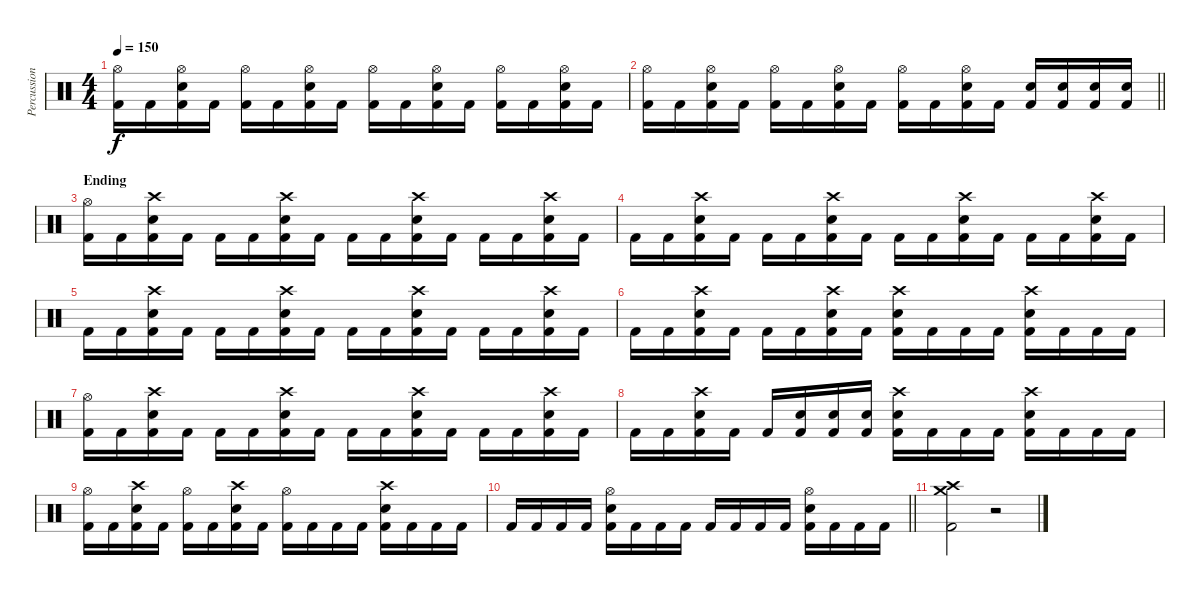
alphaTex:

\track ("Percussion" "Percussion") {instrument percussion}
\staff {score}
\articulation defaults
\ts (4 4)
\tempo 150
\clef neutral
\ks c
("Hi-Hat (open)" "Kick (hit) 2").16{dy f} "Kick (hit) 2".16 ("Hi-Hat (open)" "Electric Snare (hit)" "Kick (hit) 2").16 "Kick (hit) 2".16 ("Hi-Hat (open)" "Kick (hit) 2").16 "Kick (hit) 2".16 ("Hi-Hat (open)" "Electric Snare (hit)" "Kick (hit) 2").16 "Kick (hit) 2".16 ("Hi-Hat (open)" "Kick (hit) 2").16 "Kick (hit) 2".16 ("Hi-Hat (open)" "Electric Snare (hit)" "Kick (hit) 2").16 "Kick (hit) 2".16 ("Hi-Hat (open)" "Kick (hit) 2").16 "Kick (hit) 2".16 ("Hi-Hat (open)" "Electric Snare (hit)" "Kick (hit) 2").16 "Kick (hit) 2".16 |
\barLineRight lightlight
("Hi-Hat (open)" "Kick (hit) 2").16 "Kick (hit) 2".16 ("Hi-Hat (open)" "Electric Snare (hit)" "Kick (hit) 2").16 "Kick (hit) 2".16 ("Hi-Hat (open)" "Kick (hit) 2").16 "Kick (hit) 2".16 ("Hi-Hat (open)" "Electric Snare (hit)" "Kick (hit) 2").16 "Kick (hit) 2".16 ("Hi-Hat (open)" "Kick (hit) 2").16 "Kick (hit) 2".16 ("Hi-Hat (open)" "Electric Snare (hit)" "Kick (hit) 2").16 "Kick (hit) 2".16 ("Electric Snare (hit)" "Kick (hit) 2").16 ("Electric Snare (hit)" "Kick (hit) 2").16 ("Electric Snare (hit)" "Kick (hit) 2").16 ("Electric Snare (hit)" "Kick (hit) 2").16 |
\section ("" "Ending")
("Hi-Hat (open)" "Kick (hit) 2").16 "Kick (hit) 2".16 ("Crash high (hit)" "Electric Snare (hit)" "Kick (hit) 2").16 "Kick (hit) 2".16 "Kick (hit) 2".16 "Kick (hit) 2".16 ("Crash high (hit)" "Electric Snare (hit)" "Kick (hit) 2").16 "Kick (hit) 2".16 "Kick (hit) 2".16 "Kick (hit) 2".16 ("Crash high (hit)" "Electric Snare (hit)" "Kick (hit) 2").16 "Kick (hit) 2".16 "Kick (hit) 2".16 "Kick (hit) 2".16 ("Crash high (hit)" "Electric Snare (hit)" "Kick (hit) 2").16 "Kick (hit) 2".16 |
"Kick (hit) 2".16 "Kick (hit) 2".16 ("Crash high (hit)" "Electric Snare (hit)" "Kick (hit) 2").16 "Kick (hit) 2".16 "Kick (hit) 2".16 "Kick (hit) 2".16 ("Crash high (hit)" "Electric Snare (hit)" "Kick (hit) 2").16 "Kick (hit) 2".16 "Kick (hit) 2".16 "Kick (hit) 2".16 ("Crash high (hit)" "Electric Snare (hit)" "Kick (hit) 2").16 "Kick (hit) 2".16 "Kick (hit) 2".16 "Kick (hit) 2".16 ("Crash high (hit)" "Electric Snare (hit)" "Kick (hit) 2").16 "Kick (hit) 2".16 |
"Kick (hit) 2".16 "Kick (hit) 2".16 ("Crash high (hit)" "Electric Snare (hit)" "Kick (hit) 2").16 "Kick (hit) 2".16 "Kick (hit) 2".16 "Kick (hit) 2".16 ("Crash high (hit)" "Electric Snare (hit)" "Kick (hit) 2").16 "Kick (hit) 2".16 "Kick (hit) 2".16 "Kick (hit) 2".16 ("Crash high (hit)" "Electric Snare (hit)" "Kick (hit) 2").16 "Kick (hit) 2".16 "Kick (hit) 2".16 "Kick (hit) 2".16 ("Crash high (hit)" "Electric Snare (hit)" "Kick (hit) 2").16 "Kick (hit) 2".16 |
"Kick (hit) 2".16 "Kick (hit) 2".16 ("Crash high (hit)" "Electric Snare (hit)" "Kick (hit) 2").16 "Kick (hit) 2".16 "Kick (hit) 2".16 "Kick (hit) 2".16 ("Crash high (hit)" "Electric Snare (hit)" "Kick (hit) 2").16 "Kick (hit) 2".16 ("Crash high (hit)" "Electric Snare (hit)" "Kick (hit) 2").16 "Kick (hit) 2".16 "Kick (hit) 2".16 "Kick (hit) 2".16 ("Crash high (hit)" "Electric Snare (hit)" "Kick (hit) 2").16 "Kick (hit) 2".16 "Kick (hit) 2".16 "Kick (hit) 2".16 |
("Hi-Hat (open)" "Kick (hit) 2").16 "Kick (hit) 2".16 ("Crash high (hit)" "Electric Snare (hit)" "Kick (hit) 2").16 "Kick (hit) 2".16 "Kick (hit) 2".16 "Kick (hit) 2".16 ("Crash high (hit)" "Electric Snare (hit)" "Kick (hit) 2").16 "Kick (hit) 2".16 "Kick (hit) 2".16 "Kick (hit) 2".16 ("Crash high (hit)" "Electric Snare (hit)" "Kick (hit) 2").16 "Kick (hit) 2".16 "Kick (hit) 2".16 "Kick (hit) 2".16 ("Crash high (hit)" "Electric Snare (hit)" "Kick (hit) 2").16 "Kick (hit) 2".16 |
"Kick (hit) 2".16 "Kick (hit) 2".16 ("Crash high (hit)" "Electric Snare (hit)" "Kick (hit) 2").16 "Kick (hit) 2".16 "Kick (hit) 2".16 ("Electric Snare (hit)" "Kick (hit) 2").16 ("Electric Snare (hit)" "Kick (hit) 2").16 ("Electric Snare (hit)" "Kick (hit) 2").16 ("Crash high (hit)" "Electric Snare (hit)" "Kick (hit) 2").16 "Kick (hit) 2".16 "Kick (hit) 2".16 "Kick (hit) 2".16 ("Crash high (hit)" "Electric Snare (hit)" "Kick (hit) 2").16 "Kick (hit) 2".16 "Kick (hit) 2".16 "Kick (hit) 2".16 |
("Hi-Hat (open)" "Kick (hit) 2").16 "Kick (hit) 2".16 ("Crash high (hit)" "Electric Snare (hit)" "Kick (hit) 2").16 "Kick (hit) 2".16 ("Hi-Hat (open)" "Kick (hit) 2").16 "Kick (hit) 2".16 ("Crash high (hit)" "Electric Snare (hit)" "Kick (hit) 2").16 "Kick (hit) 2".16 ("Hi-Hat (open)" "Kick (hit) 2").16 "Kick (hit) 2".16 "Kick (hit) 2".16 "Kick (hit) 2".16 ("Crash high (hit)" "Electric Snare (hit)" "Kick (hit) 2").16 "Kick (hit) 2".16 "Kick (hit) 2".16 "Kick (hit) 2".16 |
\barLineRight lightlight "Kick (hit) 2".16 "Kick (hit) 2".16 "Kick (hit) 2".16 "Kick (hit) 2".16
("Hi-Hat (open)" "Electric Snare (hit)" "Kick (hit) 2").16 "Kick (hit) 2".16 "Kick (hit) 2".16 "Kick (hit) 2".16 "Kick (hit) 2".16 "Kick (hit) 2".16 "Kick (hit) 2".16 "Kick (hit) 2".16 ("Hi-Hat (open)" "Electric Snare (hit)" "Kick (hit) 2").16 "Kick (hit) 2".16 "Kick (hit) 2".16 "Kick (hit) 2".16 |
("Crash medium (hit)" "Crash high (hit)" "Kick (hit) 2").2 r.2
